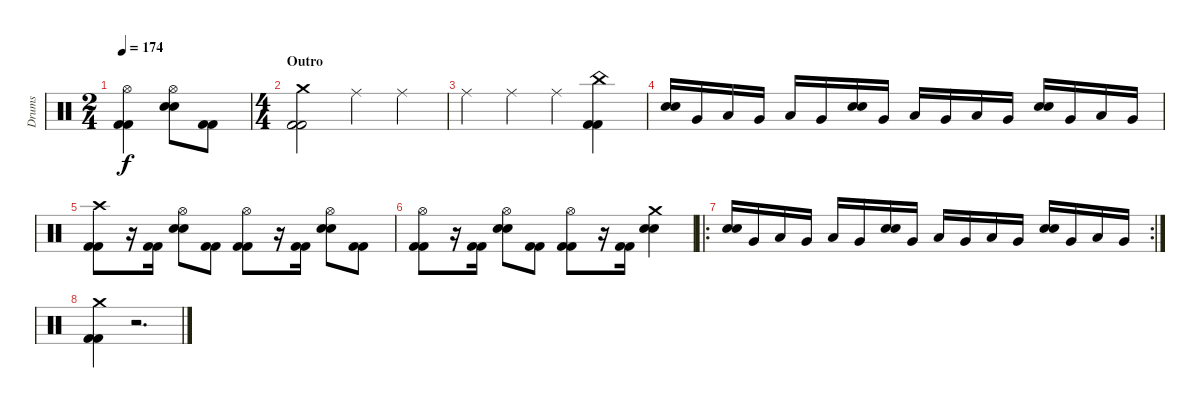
\track ("Drums" "Drums") {instrument percussion}
\staff {score}
\articulation defaults
\ts (2 4)
\tempo 174
\clef neutral
\ks c
("Hi-Hat (open)" "Kick (hit) 2" "Kick (hit) 2").4{dy f} ("Hi-Hat (open)" "Snare (hit) 2" "Snare (hit) 2").8 ("Kick (hit) 2" "Kick (hit) 2").8 |
\ts (4 4)
\section ("" "Outro")
("Crash medium (hit)" "Kick (hit) 2" "Kick (hit) 2").2 "Ride (middle)".4 "Ride (middle)".4 |
"Ride (middle)".4 "Ride (middle)".4 "Ride (middle)".4 ("China (hit)" "Kick (hit) 2" "Kick (hit) 2").4 |
("Snare (hit) 2" "Snare (hit) 2").16 "Very Low Tom (hit)".16 "Low Tom (hit)".16 "Very Low Tom (hit)".16 "Low Tom (hit)".16 "Very Low Tom (hit)".16 ("Snare (hit) 2" "Snare (hit) 2").16 "Very Low Tom (hit)".16 "Low Tom (hit)".16 "Very Low Tom (hit)".16 "Low Tom (hit)".16 "Very Low Tom (hit)".16 ("Snare (hit) 2" "Snare (hit) 2").16 "Very Low Tom (hit)".16 "Low Tom (hit)".16 "Very Low Tom (hit)".16 |
("Crash high (hit)" "Kick (hit) 2" "Kick (hit) 2").8 r.16 ("Kick (hit) 2" "Kick (hit) 2").16 ("Hi-Hat (open)" "Snare (hit) 2" "Snare (hit) 2").8 ("Kick (hit) 2" "Kick (hit) 2").8 ("Hi-Hat (open)" "Kick (hit) 2" "Kick (hit) 2").8 r.16 ("Kick (hit) 2" "Kick (hit) 2").16 ("Hi-Hat (open)" "Snare (hit) 2" "Snare (hit) 2").8 ("Kick (hit) 2" "Kick (hit) 2").8 |
("Hi-Hat (open)" "Kick (hit) 2" "Kick (hit) 2").8 r.16 ("Kick (hit) 2" "Kick (hit) 2").16 ("Hi-Hat (open)" "Snare (hit) 2" "Snare (hit) 2").8 ("Kick (hit) 2" "Kick (hit) 2").8 ("Hi-Hat (open)" "Kick (hit) 2" "Kick (hit) 2").8 r.16 ("Kick (hit) 2" "Kick (hit) 2").16 ("Crash medium (hit)" "Snare (hit) 2" "Snare (hit) 2").4 |
\ro
\rc 2
("Snare (hit) 2" "Snare (hit) 2").16 "Very Low Tom (hit)".16 "Low Tom (hit)".16 "Very Low Tom (hit)".16 "Low Tom (hit)".16 "Very Low Tom (hit)".16 ("Snare (hit) 2" "Snare (hit) 2").16 "Very Low Tom (hit)".16 "Low Tom (hit)".16 "Very Low Tom (hit)".16 "Low Tom (hit)".16 "Very Low Tom (hit)".16 ("Snare (hit) 2" "Snare (hit) 2").16 "Very Low Tom (hit)".16 "Low Tom (hit)".16 "Very Low Tom (hit)".16 |
("Crash medium (hit)" "Kick (hit) 2" "Kick (hit) 2").4 r.2{d}
